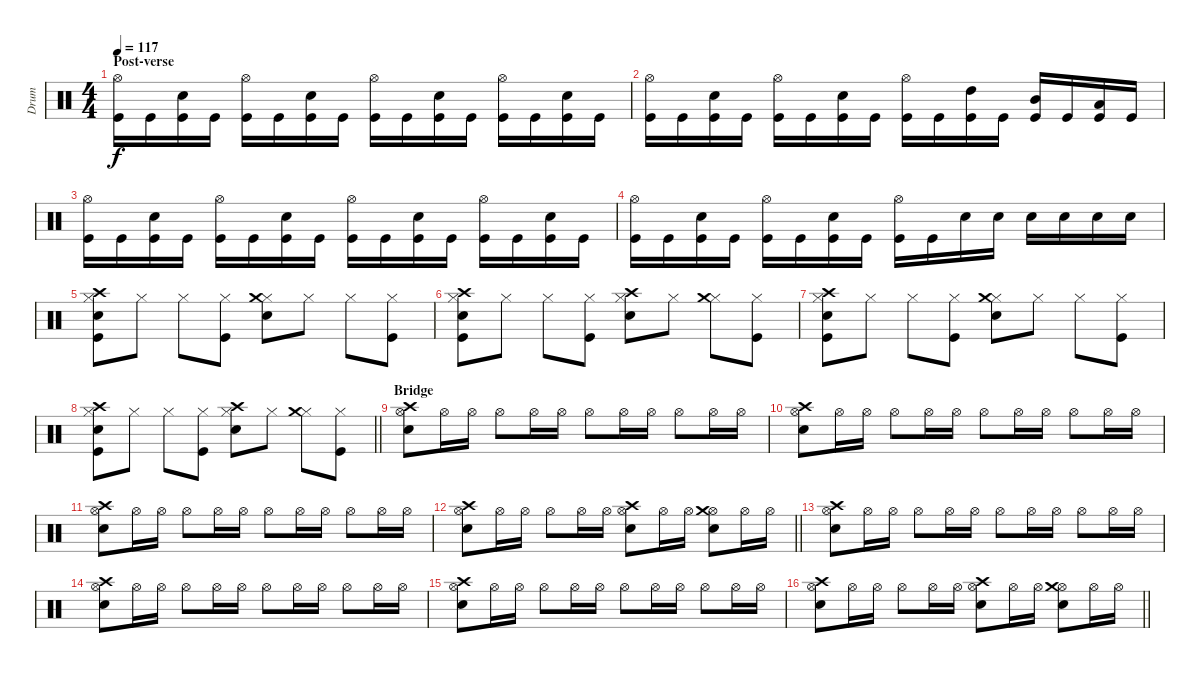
\track ("Drum" "Drum") {instrument percussion}
\staff {score}
\articulation defaults
\ts (4 4)
\section ("" "Post-verse")
\tempo 117
\clef neutral
\ks c
("Kick (hit)" "Hi-Hat (open)").16{dy f} "Kick (hit)".16 ("Kick (hit)" "Snare (hit) 2").16 "Kick (hit)".16 ("Kick (hit)" "Hi-Hat (open)").16 "Kick (hit)".16 ("Kick (hit)" "Snare (hit) 2").16 "Kick (hit)".16 ("Kick (hit)" "Hi-Hat (open)").16 "Kick (hit)".16 ("Kick (hit)" "Snare (hit) 2").16 "Kick (hit)".16 ("Kick (hit)" "Hi-Hat (open)").16 "Kick (hit)".16 ("Kick (hit)" "Snare (hit) 2").16 "Kick (hit)".16 |
("Kick (hit)" "Hi-Hat (open)").16 "Kick (hit)".16 ("Kick (hit)" "Snare (hit) 2").16 "Kick (hit)".16 ("Kick (hit)" "Hi-Hat (open)").16 "Kick (hit)".16 ("Kick (hit)" "Snare (hit) 2").16 "Kick (hit)".16 ("Kick (hit)" "Hi-Hat (open)").16 "Kick (hit)".16 ("High Tom (hit)" "Kick (hit)").16 "Kick (hit)".16 ("Mid Tom (hit)" "Kick (hit)").16 "Kick (hit)".16 ("Low Tom (hit)" "Kick (hit)").16 "Kick (hit)".16 |
("Kick (hit)" "Hi-Hat (open)").16 "Kick (hit)".16 ("Kick (hit)" "Snare (hit) 2").16 "Kick (hit)".16 ("Kick (hit)" "Hi-Hat (open)").16 "Kick (hit)".16 ("Kick (hit)" "Snare (hit) 2").16 "Kick (hit)".16 ("Kick (hit)" "Hi-Hat (open)").16 "Kick (hit)".16 ("Kick (hit)" "Snare (hit) 2").16 "Kick (hit)".16 ("Kick (hit)" "Hi-Hat (open)").16 "Kick (hit)".16 ("Kick (hit)" "Snare (hit) 2").16 "Kick (hit)".16 |
("Kick (hit)" "Hi-Hat (open)").16 "Kick (hit)".16 ("Kick (hit)" "Snare (hit) 2").16 "Kick (hit)".16 ("Kick (hit)" "Hi-Hat (open)").16 "Kick (hit)".16 ("Kick (hit)" "Snare (hit) 2").16 "Kick (hit)".16 ("Kick (hit)" "Hi-Hat (open)").16 "Kick (hit)".16 "Snare (hit) 2".16 "Snare (hit) 2".16 "Snare (hit) 2".16 "Snare (hit) 2".16 "Snare (hit) 2".16 "Snare (hit) 2".16 |
("Hi-Hat (closed)" "Kick (hit)" "Snare (hit) 2" "Crash high (hit)").8 "Hi-Hat (closed)".8 "Hi-Hat (closed)".8 ("Hi-Hat (closed)" "Kick (hit)").8 ("Hi-Hat (closed)" "Snare (hit) 2" "Crash medium (hit)").8 "Hi-Hat (closed)".8 "Hi-Hat (closed)".8 ("Hi-Hat (closed)" "Kick (hit)").8 |
("Hi-Hat (closed)" "Kick (hit)" "Snare (hit) 2" "Crash high (hit)").8 "Hi-Hat (closed)".8 "Hi-Hat (closed)".8 ("Hi-Hat (closed)" "Kick (hit)").8 ("Hi-Hat (closed)" "Snare (hit) 2" "Crash high (hit)").8 "Hi-Hat (closed)".8 ("Hi-Hat (closed)" "Crash medium (hit)").8 ("Hi-Hat (closed)" "Kick (hit)").8 |
("Hi-Hat (closed)" "Kick (hit)" "Snare (hit) 2" "Crash high (hit)").8 "Hi-Hat (closed)".8 "Hi-Hat (closed)".8 ("Hi-Hat (closed)" "Kick (hit)").8 ("Hi-Hat (closed)" "Snare (hit) 2" "Crash medium (hit)").8 "Hi-Hat (closed)".8 "Hi-Hat (closed)".8 ("Hi-Hat (closed)" "Kick (hit)").8 |
\barLineRight lightlight
("Hi-Hat (closed)" "Kick (hit)" "Snare (hit) 2" "Crash high (hit)").8 "Hi-Hat (closed)".8 "Hi-Hat (closed)".8 ("Hi-Hat (closed)" "Kick (hit)").8 ("Hi-Hat (closed)" "Snare (hit) 2" "Crash high (hit)").8 "Hi-Hat (closed)".8 ("Hi-Hat (closed)" "Crash medium (hit)").8 ("Hi-Hat (closed)" "Kick (hit)").8 |
\section ("" "Bridge")
("Hi-Hat (open)" "Snare (hit) 2" "Crash high (hit)").8 "Hi-Hat (open)".16 "Hi-Hat (open)".16 "Hi-Hat (open)".8 "Hi-Hat (open)".16 "Hi-Hat (open)".16 "Hi-Hat (open)".8 "Hi-Hat (open)".16 "Hi-Hat (open)".16 "Hi-Hat (open)".8 "Hi-Hat (open)".16 "Hi-Hat (open)".16 |
("Hi-Hat (open)" "Snare (hit) 2" "Crash high (hit)").8 "Hi-Hat (open)".16 "Hi-Hat (open)".16 "Hi-Hat (open)".8 "Hi-Hat (open)".16 "Hi-Hat (open)".16 "Hi-Hat (open)".8 "Hi-Hat (open)".16 "Hi-Hat (open)".16 "Hi-Hat (open)".8 "Hi-Hat (open)".16 "Hi-Hat (open)".16 |
("Hi-Hat (open)" "Snare (hit) 2" "Crash high (hit)").8 "Hi-Hat (open)".16 "Hi-Hat (open)".16 "Hi-Hat (open)".8 "Hi-Hat (open)".16 "Hi-Hat (open)".16 "Hi-Hat (open)".8 "Hi-Hat (open)".16 "Hi-Hat (open)".16 "Hi-Hat (open)".8 "Hi-Hat (open)".16 "Hi-Hat (open)".16 |
\barLineRight lightlight
("Hi-Hat (open)" "Snare (hit) 2" "Crash high (hit)").8 "Hi-Hat (open)".16 "Hi-Hat (open)".16 "Hi-Hat (open)".8 "Hi-Hat (open)".16 "Hi-Hat (open)".16 ("Hi-Hat (open)" "Snare (hit) 2" "Crash high (hit)").8 "Hi-Hat (open)".16 "Hi-Hat (open)".16 ("Hi-Hat (open)" "Snare (hit) 2" "Crash medium (hit)").8 "Hi-Hat (open)".16 "Hi-Hat (open)".16 |
("Hi-Hat (open)" "Snare (hit) 2" "Crash high (hit)").8 "Hi-Hat (open)".16 "Hi-Hat (open)".16 "Hi-Hat (open)".8 "Hi-Hat (open)".16 "Hi-Hat (open)".16 "Hi-Hat (open)".8 "Hi-Hat (open)".16 "Hi-Hat (open)".16 "Hi-Hat (open)".8 "Hi-Hat (open)".16 "Hi-Hat (open)".16 |
("Hi-Hat (open)" "Snare (hit) 2" "Crash high (hit)").8 "Hi-Hat (open)".16 "Hi-Hat (open)".16 "Hi-Hat (open)".8 "Hi-Hat (open)".16 "Hi-Hat (open)".16 "Hi-Hat (open)".8 "Hi-Hat (open)".16 "Hi-Hat (open)".16 "Hi-Hat (open)".8 "Hi-Hat (open)".16 "Hi-Hat (open)".16 |
("Hi-Hat (open)" "Snare (hit) 2" "Crash high (hit)").8 "Hi-Hat (open)".16 "Hi-Hat (open)".16 "Hi-Hat (open)".8 "Hi-Hat (open)".16 "Hi-Hat (open)".16 "Hi-Hat (open)".8 "Hi-Hat (open)".16 "Hi-Hat (open)".16 "Hi-Hat (open)".8 "Hi-Hat (open)".16 "Hi-Hat (open)".16 |
\barLineRight lightlight
("Hi-Hat (open)" "Snare (hit) 2" "Crash high (hit)").8 "Hi-Hat (open)".16 "Hi-Hat (open)".16 "Hi-Hat (open)".8 "Hi-Hat (open)".16 "Hi-Hat (open)".16 ("Hi-Hat (open)" "Snare (hit) 2" "Crash high (hit)").8 "Hi-Hat (open)".16 "Hi-Hat (open)".16 ("Hi-Hat (open)" "Snare (hit) 2" "Crash medium (hit)").8 "Hi-Hat (open)".16 "Hi-Hat (open)".16
